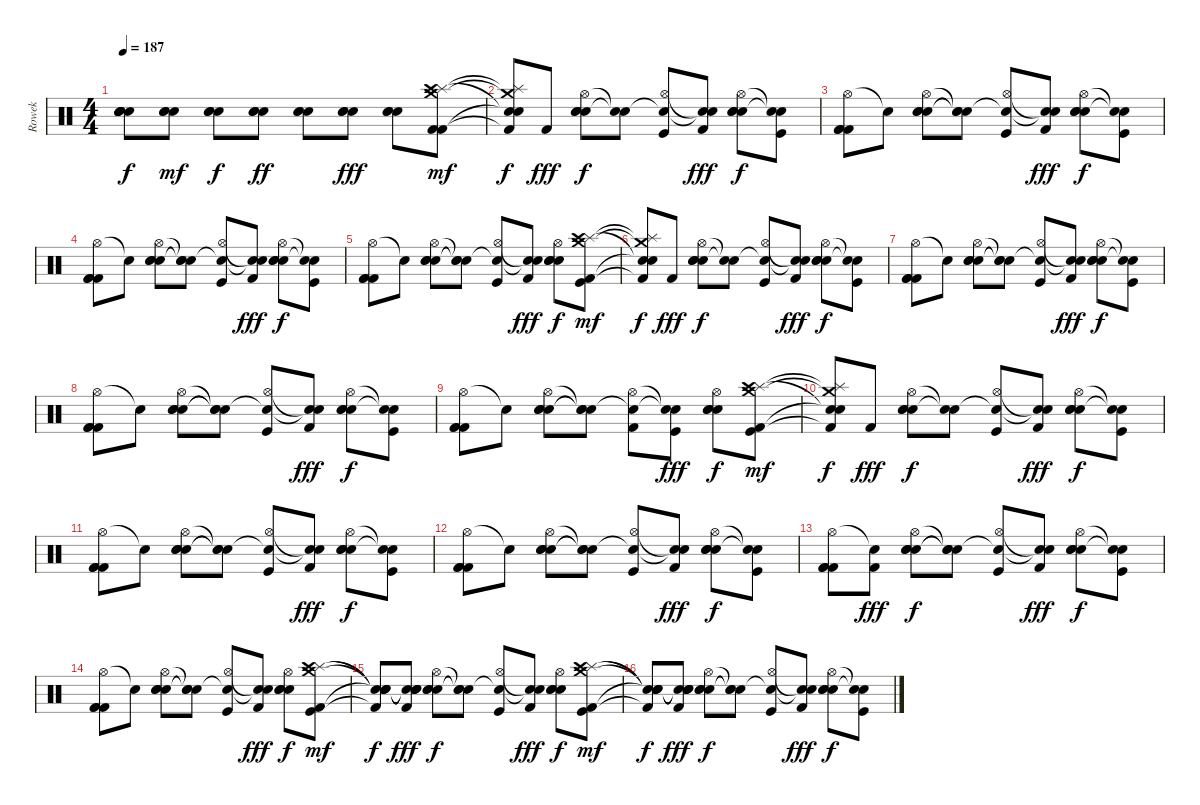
\track ("Rowek" "Rowek") {instrument percussion}
\staff {score}
\articulation defaults
\ts (4 4)
\tempo 187
\clef neutral
\ks c
("Snare (hit)"{t} "Snare (hit)"{t} "Snare (hit)"{t} "Snare (hit)"{t} "Snare (hit)"{t}).8{dy f} ("Electric Snare (hit)" "Electric Snare (hit)" "Electric Snare (hit)").8{dy mf} ("Electric Snare (hit)" "Electric Snare (hit)" "Electric Snare (hit)").8{dy f} ("Electric Snare (hit)" "Electric Snare (hit)" "Electric Snare (hit)").8{dy ff} ("Electric Snare (hit)" "Electric Snare (hit)" "Electric Snare (hit)").8 ("Electric Snare (hit)" "Electric Snare (hit)" "Electric Snare (hit)").8{dy fff} ("Electric Snare (hit)" "Electric Snare (hit)" "Electric Snare (hit)").8 ("Crash medium (hit)" "Splash (hit)" "Crash high (hit)" "Kick (hit) 2" "Kick (hit) 2").8{dy mf} |
("Crash medium (hit)"{t} "Splash (hit)"{t} "Snare (hit)"{t} "Snare (hit)"{t} "Kick (hit) 2"{t}).8{dy f} "Kick (hit) 2".8{dy fff} ("Hi-Hat (open)" "Electric Snare (hit)" "Electric Snare (hit)" "Electric Snare (hit)").8{dy f} ("Snare (hit)"{t} "Snare (hit)"{t}).8 ("Hi-Hat (open)" "Snare (hit)"{t} "Kick (hit)").8 ("Snare (hit)"{t} "Snare (hit)"{t} "Kick (hit) 2").8{dy fff} ("Hi-Hat (open)" "Electric Snare (hit)" "Electric Snare (hit)" "Electric Snare (hit)").8{dy f} ("Snare (hit)"{t} "Snare (hit)"{t} "Kick (hit)").8 |
("Hi-Hat (open)" "Kick (hit) 2" "Kick (hit) 2" "Kick (hit) 2").8 "Snare (hit)"{t}.8 ("Hi-Hat (open)" "Electric Snare (hit)" "Electric Snare (hit)" "Electric Snare (hit)").8 ("Snare (hit)"{t} "Snare (hit)"{t} "Snare (hit)"{t}).8 ("Hi-Hat (open)" "Snare (hit)"{t} "Kick (hit)").8 ("Snare (hit)"{t} "Snare (hit)"{t} "Kick (hit) 2").8{dy fff} ("Hi-Hat (open)" "Electric Snare (hit)" "Electric Snare (hit)" "Electric Snare (hit)").8{dy f} ("Snare (hit)"{t} "Snare (hit)"{t} "Kick (hit)").8 |
("Hi-Hat (open)" "Kick (hit) 2" "Kick (hit) 2" "Kick (hit) 2").8 "Snare (hit)"{t}.8 ("Hi-Hat (open)" "Electric Snare (hit)" "Electric Snare (hit)" "Electric Snare (hit)").8 ("Snare (hit)"{t} "Snare (hit)"{t} "Snare (hit)"{t}).8 ("Hi-Hat (open)" "Snare (hit)"{t} "Kick (hit)").8 ("Snare (hit)"{t} "Snare (hit)"{t} "Kick (hit) 2").8{dy fff} ("Hi-Hat (open)" "Electric Snare (hit)" "Electric Snare (hit)" "Electric Snare (hit)").8{dy f} ("Snare (hit)"{t} "Snare (hit)"{t} "Kick (hit)").8 |
("Hi-Hat (open)" "Kick (hit) 2" "Kick (hit) 2" "Kick (hit) 2").8 "Snare (hit)"{t}.8 ("Hi-Hat (open)" "Electric Snare (hit)" "Electric Snare (hit)" "Electric Snare (hit)").8 ("Snare (hit)"{t} "Snare (hit)"{t} "Snare (hit)"{t}).8 ("Hi-Hat (open)" "Snare (hit)"{t} "Kick (hit)").8 ("Snare (hit)"{t} "Snare (hit)"{t} "Kick (hit) 2").8{dy fff} ("Hi-Hat (open)" "Electric Snare (hit)" "Electric Snare (hit)" "Electric Snare (hit)").8{dy f} ("Crash medium (hit)" "Splash (hit)" "Crash high (hit)" "Kick (hit) 2" "Kick (hit)").8{dy mf} |
("Crash medium (hit)"{t} "Splash (hit)"{t} "Snare (hit)"{t} "Snare (hit)"{t} "Kick (hit) 2"{t}).8{dy f} "Kick (hit) 2".8{dy fff} ("Hi-Hat (open)" "Electric Snare (hit)" "Electric Snare (hit)" "Electric Snare (hit)").8{dy f} ("Snare (hit)"{t} "Snare (hit)"{t}).8 ("Hi-Hat (open)" "Snare (hit)"{t} "Kick (hit)").8 ("Snare (hit)"{t} "Snare (hit)"{t} "Kick (hit) 2").8{dy fff} ("Hi-Hat (open)" "Electric Snare (hit)" "Electric Snare (hit)" "Electric Snare (hit)").8{dy f} ("Snare (hit)"{t} "Snare (hit)"{t} "Kick (hit)").8 |
("Hi-Hat (open)" "Kick (hit) 2" "Kick (hit) 2" "Kick (hit) 2").8 "Snare (hit)"{t}.8 ("Hi-Hat (open)" "Electric Snare (hit)" "Electric Snare (hit)" "Electric Snare (hit)").8 ("Snare (hit)"{t} "Snare (hit)"{t} "Snare (hit)"{t}).8 ("Hi-Hat (open)" "Snare (hit)"{t} "Kick (hit)").8 ("Snare (hit)"{t} "Snare (hit)"{t} "Kick (hit) 2").8{dy fff} ("Hi-Hat (open)" "Electric Snare (hit)" "Electric Snare (hit)" "Electric Snare (hit)").8{dy f} ("Snare (hit)"{t} "Snare (hit)"{t} "Kick (hit)").8 |
("Hi-Hat (open)" "Kick (hit) 2" "Kick (hit) 2" "Kick (hit) 2").8 "Snare (hit)"{t}.8 ("Hi-Hat (open)" "Electric Snare (hit)" "Electric Snare (hit)" "Electric Snare (hit)").8 ("Snare (hit)"{t} "Snare (hit)"{t} "Snare (hit)"{t}).8 ("Hi-Hat (open)" "Snare (hit)"{t} "Kick (hit)").8 ("Snare (hit)"{t} "Snare (hit)"{t} "Kick (hit) 2").8{dy fff} ("Hi-Hat (open)" "Electric Snare (hit)" "Electric Snare (hit)" "Electric Snare (hit)").8{dy f} ("Snare (hit)"{t} "Snare (hit)"{t} "Kick (hit)").8 |
("Hi-Hat (open)" "Kick (hit) 2" "Kick (hit) 2" "Kick (hit) 2").8 "Snare (hit)"{t}.8 ("Hi-Hat (open)" "Electric Snare (hit)" "Electric Snare (hit)" "Electric Snare (hit)").8 ("Snare (hit)"{t} "Snare (hit)"{t} "Snare (hit)"{t}).8 ("Hi-Hat (open)" "Snare (hit)"{t} "Kick (hit) 2").8 ("Snare (hit)"{t} "Snare (hit)"{t} "Kick (hit)").8{dy fff} ("Hi-Hat (open)" "Electric Snare (hit)" "Electric Snare (hit)" "Electric Snare (hit)").8{dy f} ("Crash medium (hit)" "Splash (hit)" "Crash high (hit)" "Kick (hit) 2" "Kick (hit)").8{dy mf} |
("Crash medium (hit)"{t} "Splash (hit)"{t} "Snare (hit)"{t} "Snare (hit)"{t} "Kick (hit) 2"{t}).8{dy f} "Kick (hit) 2".8{dy fff} ("Hi-Hat (open)" "Electric Snare (hit)" "Electric Snare (hit)" "Electric Snare (hit)").8{dy f} ("Snare (hit)"{t} "Snare (hit)"{t}).8 ("Hi-Hat (open)" "Snare (hit)"{t} "Kick (hit)").8 ("Snare (hit)"{t} "Snare (hit)"{t} "Kick (hit) 2").8{dy fff} ("Hi-Hat (open)" "Electric Snare (hit)" "Electric Snare (hit)" "Electric Snare (hit)").8{dy f} ("Snare (hit)"{t} "Snare (hit)"{t} "Kick (hit)").8 |
("Hi-Hat (open)" "Kick (hit) 2" "Kick (hit) 2" "Kick (hit) 2").8 "Snare (hit)"{t}.8 ("Hi-Hat (open)" "Electric Snare (hit)" "Electric Snare (hit)" "Electric Snare (hit)").8 ("Snare (hit)"{t} "Snare (hit)"{t} "Snare (hit)"{t}).8 ("Hi-Hat (open)" "Snare (hit)"{t} "Kick (hit)").8 ("Snare (hit)"{t} "Snare (hit)"{t} "Kick (hit) 2").8{dy fff} ("Hi-Hat (open)" "Electric Snare (hit)" "Electric Snare (hit)" "Electric Snare (hit)").8{dy f} ("Snare (hit)"{t} "Snare (hit)"{t} "Kick (hit)").8 |
("Hi-Hat (open)" "Kick (hit) 2" "Kick (hit) 2" "Kick (hit) 2").8 "Snare (hit)"{t}.8 ("Hi-Hat (open)" "Electric Snare (hit)" "Electric Snare (hit)" "Electric Snare (hit)").8 ("Snare (hit)"{t} "Snare (hit)"{t} "Snare (hit)"{t}).8 ("Hi-Hat (open)" "Snare (hit)"{t} "Kick (hit)").8 ("Snare (hit)"{t} "Snare (hit)"{t} "Kick (hit) 2").8{dy fff} ("Hi-Hat (open)" "Electric Snare (hit)" "Electric Snare (hit)" "Electric Snare (hit)").8{dy f} ("Snare (hit)"{t} "Snare (hit)"{t} "Kick (hit)").8 |
("Hi-Hat (open)" "Kick (hit) 2" "Kick (hit) 2" "Kick (hit) 2").8 ("Snare (hit)"{t} "Kick (hit) 2").8{dy fff} ("Hi-Hat (open)" "Electric Snare (hit)" "Electric Snare (hit)" "Electric Snare (hit)").8{dy f} ("Snare (hit)"{t} "Snare (hit)"{t} "Snare (hit)"{t}).8 ("Hi-Hat (open)" "Snare (hit)"{t} "Kick (hit)").8 ("Snare (hit)"{t} "Snare (hit)"{t} "Kick (hit) 2").8{dy fff} ("Hi-Hat (open)" "Electric Snare (hit)" "Electric Snare (hit)" "Electric Snare (hit)").8{dy f} ("Snare (hit)"{t} "Snare (hit)"{t} "Kick (hit)").8 |
("Hi-Hat (open)" "Kick (hit) 2" "Kick (hit) 2" "Kick (hit) 2").8 "Snare (hit)"{t}.8 ("Hi-Hat (open)" "Electric Snare (hit)" "Electric Snare (hit)" "Electric Snare (hit)").8 ("Snare (hit)"{t} "Snare (hit)"{t} "Snare (hit)"{t}).8 ("Hi-Hat (open)" "Snare (hit)"{t} "Kick (hit)").8 ("Snare (hit)"{t} "Snare (hit)"{t} "Kick (hit) 2").8{dy fff} ("Hi-Hat (open)" "Electric Snare (hit)" "Electric Snare (hit)" "Electric Snare (hit)").8{dy f} ("Crash medium (hit)" "Splash (hit)" "Crash high (hit)" "Kick (hit) 2" "Kick (hit)").8{dy mf} |
("Snare (hit)"{t} "Snare (hit)"{t} "Snare (hit)"{t} "Snare (hit)"{t} "Kick (hit) 2"{t}).8{dy f} ("Snare (hit)"{t} "Snare (hit)"{t} "Snare (hit)"{t} "Snare (hit)"{t} "Kick (hit) 2").8{dy fff} ("Hi-Hat (open)" "Electric Snare (hit)" "Electric Snare (hit)" "Electric Snare (hit)").8{dy f} ("Snare (hit)"{t} "Snare (hit)"{t} "Snare (hit)"{t}).8 ("Hi-Hat (open)" "Snare (hit)"{t} "Kick (hit)").8 ("Snare (hit)"{t} "Snare (hit)"{t} "Kick (hit) 2").8{dy fff} ("Hi-Hat (open)" "Electric Snare (hit)" "Electric Snare (hit)" "Electric Snare (hit)").8{dy f} ("Crash medium (hit)" "Splash (hit)" "Crash high (hit)" "Kick (hit) 2" "Kick (hit)").8{dy mf} |
("Snare (hit)"{t} "Snare (hit)"{t} "Snare (hit)"{t} "Snare (hit)"{t} "Kick (hit) 2"{t}).8{dy f} ("Snare (hit)"{t} "Snare (hit)"{t} "Snare (hit)"{t} "Snare (hit)"{t} "Kick (hit) 2").8{dy fff} ("Hi-Hat (open)" "Electric Snare (hit)" "Electric Snare (hit)" "Electric Snare (hit)").8{dy f} ("Snare (hit)"{t} "Snare (hit)"{t} "Snare (hit)"{t}).8 ("Hi-Hat (open)" "Snare (hit)"{t} "Kick (hit)").8 ("Snare (hit)"{t} "Snare (hit)"{t} "Kick (hit) 2").8{dy fff} ("Hi-Hat (open)" "Electric Snare (hit)" "Electric Snare (hit)" "Electric Snare (hit)").8{dy f} ("Snare (hit)"{t} "Snare (hit)"{t} "Kick (hit)").8
